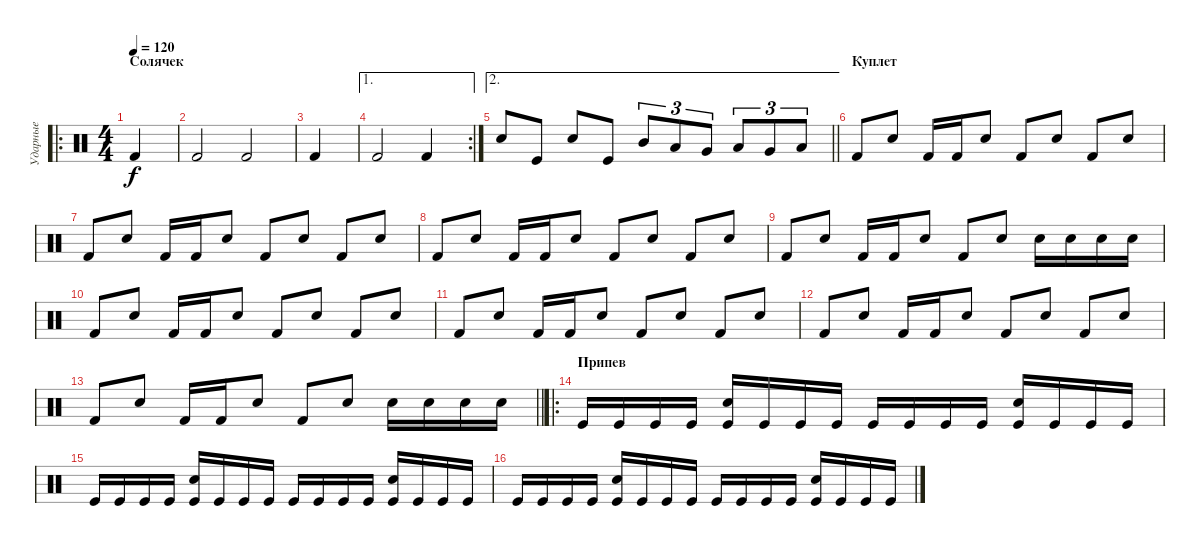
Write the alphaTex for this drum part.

\track ("Ударные" "Ударные") {instrument percussion}
\staff {score}
\articulation defaults
\ro
\ts (4 4)
\section ("" "Солячек")
\tempo 120
\clef neutral
\ks c "Kick (hit) 2".4{dy f}
|
"Kick (hit) 2".2 "Kick (hit) 2".2 |
"Kick (hit) 2".4 |
\ae 1
\rc 2 "Kick (hit) 2".2 "Kick (hit) 2".4
|
\ae 2
\barLineRight lightlight "Snare (hit) 2".8 "Kick (hit)".8 "Snare (hit) 2".8 "Kick (hit)".8 "Mid Tom (hit)".8{tu (3 2)} "Low Tom (hit)".8{tu (3 2)} "Very Low Tom (hit)".8{tu (3 2)} "Low Tom (hit)".8{tu (3 2)} "Very Low Tom (hit)".8{tu (3 2)} "Low Floor Tom (hit)".8{tu (3 2)}
|
\section ("" "Куплет")
"Kick (hit) 2".8 "Electric Snare (hit)".8 "Kick (hit) 2".16 "Kick (hit) 2".16 "Electric Snare (hit)".8 "Kick (hit) 2".8 "Electric Snare (hit)".8 "Kick (hit) 2".8 "Electric Snare (hit)".8 |
"Kick (hit) 2".8 "Electric Snare (hit)".8 "Kick (hit) 2".16 "Kick (hit) 2".16 "Electric Snare (hit)".8 "Kick (hit) 2".8 "Electric Snare (hit)".8 "Kick (hit) 2".8 "Electric Snare (hit)".8 |
"Kick (hit) 2".8 "Electric Snare (hit)".8 "Kick (hit) 2".16 "Kick (hit) 2".16 "Electric Snare (hit)".8 "Kick (hit) 2".8 "Electric Snare (hit)".8 "Kick (hit) 2".8 "Electric Snare (hit)".8 |
"Kick (hit) 2".8 "Electric Snare (hit)".8 "Kick (hit) 2".16 "Kick (hit) 2".16 "Electric Snare (hit)".8 "Kick (hit) 2".8 "Electric Snare (hit)".8 "Electric Snare (hit)".16 "Electric Snare (hit)".16 "Electric Snare (hit)".16 "Electric Snare (hit)".16 |
"Kick (hit) 2".8 "Electric Snare (hit)".8 "Kick (hit) 2".16 "Kick (hit) 2".16 "Electric Snare (hit)".8 "Kick (hit) 2".8 "Electric Snare (hit)".8 "Kick (hit) 2".8 "Electric Snare (hit)".8 |
"Kick (hit) 2".8 "Electric Snare (hit)".8 "Kick (hit) 2".16 "Kick (hit) 2".16 "Electric Snare (hit)".8 "Kick (hit) 2".8 "Electric Snare (hit)".8 "Kick (hit) 2".8 "Electric Snare (hit)".8 |
"Kick (hit) 2".8 "Electric Snare (hit)".8 "Kick (hit) 2".16 "Kick (hit) 2".16 "Electric Snare (hit)".8 "Kick (hit) 2".8 "Electric Snare (hit)".8 "Kick (hit) 2".8 "Electric Snare (hit)".8 |
\barLineRight lightlight "Kick (hit) 2".8 "Electric Snare (hit)".8 "Kick (hit) 2".16 "Kick (hit) 2".16 "Electric Snare (hit)".8 "Kick (hit) 2".8 "Electric Snare (hit)".8 "Electric Snare (hit)".16 "Electric Snare (hit)".16 "Electric Snare (hit)".16 "Electric Snare (hit)".16
|
\ro
\section ("" "Припев")
"Kick (hit)".16 "Kick (hit)".16 "Kick (hit)".16 "Kick (hit)".16 ("Kick (hit)" "Snare (hit) 2").16 "Kick (hit)".16 "Kick (hit)".16 "Kick (hit)".16 "Kick (hit)".16 "Kick (hit)".16 "Kick (hit)".16 "Kick (hit)".16 ("Kick (hit)" "Snare (hit) 2").16 "Kick (hit)".16 "Kick (hit)".16 "Kick (hit)".16 |
"Kick (hit)".16 "Kick (hit)".16 "Kick (hit)".16 "Kick (hit)".16 ("Kick (hit)" "Snare (hit) 2").16 "Kick (hit)".16 "Kick (hit)".16 "Kick (hit)".16 "Kick (hit)".16 "Kick (hit)".16 "Kick (hit)".16 "Kick (hit)".16 ("Kick (hit)" "Snare (hit) 2").16 "Kick (hit)".16 "Kick (hit)".16 "Kick (hit)".16 |
"Kick (hit)".16 "Kick (hit)".16 "Kick (hit)".16 "Kick (hit)".16 ("Kick (hit)" "Snare (hit) 2").16 "Kick (hit)".16 "Kick (hit)".16 "Kick (hit)".16 "Kick (hit)".16 "Kick (hit)".16 "Kick (hit)".16 "Kick (hit)".16 ("Kick (hit)" "Snare (hit) 2").16 "Kick (hit)".16 "Kick (hit)".16 "Kick (hit)".16
